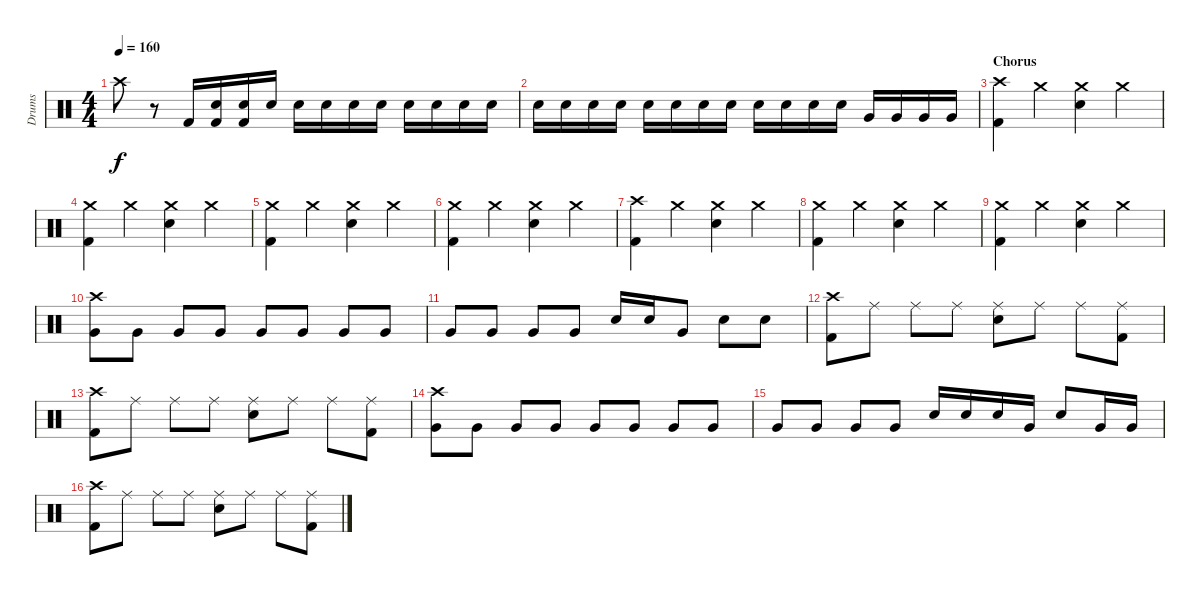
\track ("Drums" "Drums") {instrument percussion}
\staff {score}
\articulation defaults
\ts (4 4)
\tempo 160
\clef neutral
\ks c "Crash high (hit)".8{dy f}
r.8 "Kick (hit) 2".16 ("Snare (hit) 2" "Kick (hit) 2").16 ("Snare (hit) 2" "Kick (hit) 2").16 "Snare (hit) 2".16 "Snare (hit) 2".16 "Snare (hit) 2".16 "Snare (hit) 2".16 "Snare (hit) 2".16 "Snare (hit) 2".16 "Snare (hit) 2".16 "Snare (hit) 2".16 "Snare (hit) 2".16 |
"Snare (hit) 2".16 "Snare (hit) 2".16 "Snare (hit) 2".16 "Snare (hit) 2".16 "Snare (hit) 2".16 "Snare (hit) 2".16 "Snare (hit) 2".16 "Snare (hit) 2".16 "Snare (hit) 2".16 "Snare (hit) 2".16 "Snare (hit) 2".16 "Snare (hit) 2".16 "Very Low Tom (hit)".16 "Very Low Tom (hit)".16 "Very Low Tom (hit)".16 "Very Low Tom (hit)".16 |
\section ("" "Chorus")
("Crash high (hit)" "Kick (hit) 2").4 "Crash medium (hit)".4 ("Crash medium (hit)" "Snare (hit) 2").4 "Crash medium (hit)".4 |
("Crash medium (hit)" "Kick (hit) 2").4 "Crash medium (hit)".4 ("Crash medium (hit)" "Snare (hit) 2").4 "Crash medium (hit)".4 |
("Crash medium (hit)" "Kick (hit) 2").4 "Crash medium (hit)".4 ("Crash medium (hit)" "Snare (hit) 2").4 "Crash medium (hit)".4 |
("Crash medium (hit)" "Kick (hit) 2").4 "Crash medium (hit)".4 ("Crash medium (hit)" "Snare (hit) 2").4 "Crash medium (hit)".4 |
("Crash high (hit)" "Kick (hit) 2").4 "Crash medium (hit)".4 ("Crash medium (hit)" "Snare (hit) 2").4 "Crash medium (hit)".4 |
("Crash medium (hit)" "Kick (hit) 2").4 "Crash medium (hit)".4 ("Crash medium (hit)" "Snare (hit) 2").4 "Crash medium (hit)".4 |
("Crash medium (hit)" "Kick (hit) 2").4 "Crash medium (hit)".4 ("Crash medium (hit)" "Snare (hit) 2").4 "Crash medium (hit)".4 |
("Crash high (hit)" "Very Low Tom (hit)").8 "Very Low Tom (hit)".8 "Very Low Tom (hit)".8 "Very Low Tom (hit)".8 "Very Low Tom (hit)".8 "Very Low Tom (hit)".8 "Very Low Tom (hit)".8 "Very Low Tom (hit)".8 |
"Very Low Tom (hit)".8 "Very Low Tom (hit)".8 "Very Low Tom (hit)".8 "Very Low Tom (hit)".8 "Snare (hit) 2".16 "Snare (hit) 2".16 "Very Low Tom (hit)".8 "Snare (hit) 2".8 "Snare (hit) 2".8 |
("Crash high (hit)" "Kick (hit) 2").8 "Ride (middle)".8 "Ride (middle)".8 "Ride (middle)".8 ("Ride (middle)" "Snare (hit) 2").8 "Ride (middle)".8 "Ride (middle)".8 ("Ride (middle)" "Kick (hit) 2").8 |
("Crash high (hit)" "Kick (hit) 2").8 "Ride (middle)".8 "Ride (middle)".8 "Ride (middle)".8 ("Ride (middle)" "Snare (hit) 2").8 "Ride (middle)".8 "Ride (middle)".8 ("Ride (middle)" "Kick (hit) 2").8 |
("Crash high (hit)" "Very Low Tom (hit)").8 "Very Low Tom (hit)".8 "Very Low Tom (hit)".8 "Very Low Tom (hit)".8 "Very Low Tom (hit)".8 "Very Low Tom (hit)".8 "Very Low Tom (hit)".8 "Very Low Tom (hit)".8 |
"Very Low Tom (hit)".8 "Very Low Tom (hit)".8 "Very Low Tom (hit)".8 "Very Low Tom (hit)".8 "Snare (hit) 2".16 "Snare (hit) 2".16 "Snare (hit) 2".16 "Very Low Tom (hit)".16 "Snare (hit) 2".8 "Very Low Tom (hit)".16 "Very Low Tom (hit)".16 |
("Crash high (hit)" "Kick (hit) 2").8 "Ride (middle)".8 "Ride (middle)".8 "Ride (middle)".8 ("Ride (middle)" "Snare (hit) 2").8 "Ride (middle)".8 "Ride (middle)".8 ("Ride (middle)" "Kick (hit) 2").8
